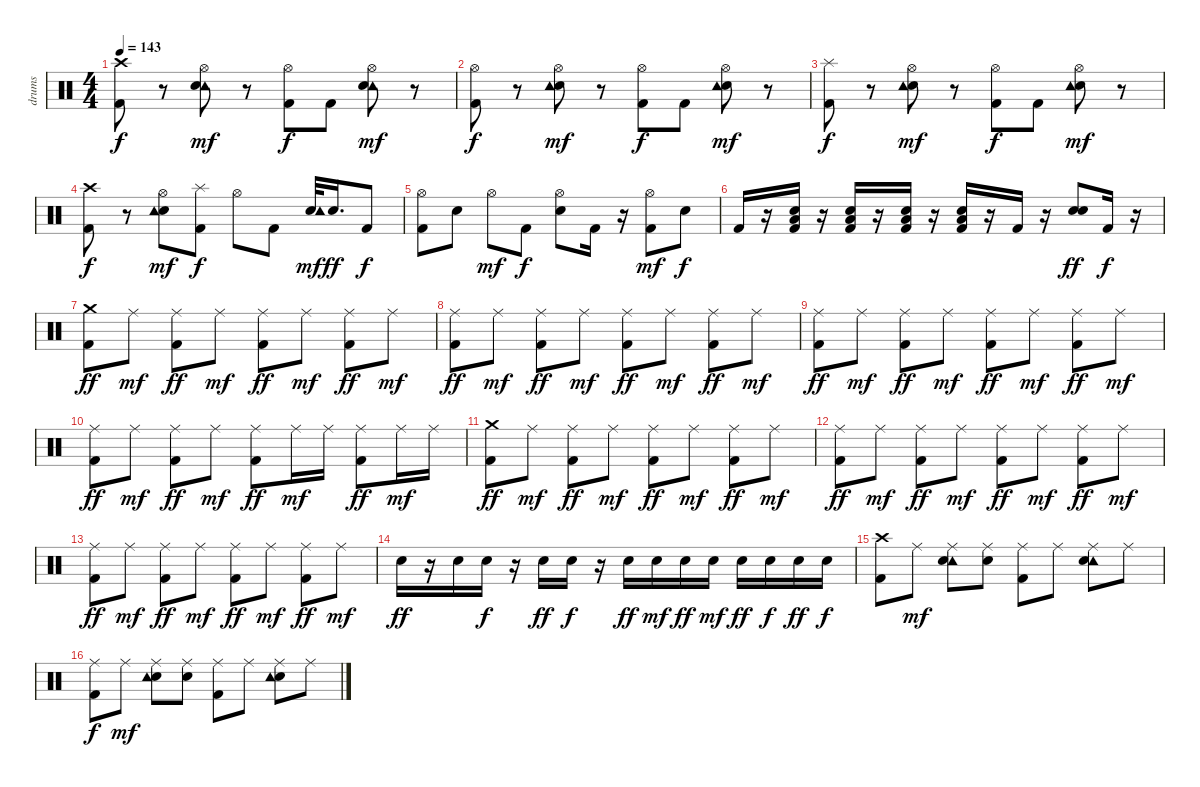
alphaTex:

\track ("drums" "drums") {instrument percussion}
\staff {score}
\articulation defaults
\ts (4 4)
\tempo 143
\clef neutral
\ks c
("Crash high (hit)" "Kick (hit) 2").8{dy f} r.8 ("Tambourine (hit)" "Snare (hit) 2" "Hi-Hat (open)").8{dy mf} r.8 ("Kick (hit) 2" "Hi-Hat (open)").8{dy f} "Kick (hit) 2".8 ("Tambourine (hit)" "Snare (hit) 2" "Hi-Hat (open)").8{dy mf} r.8 |
("Kick (hit) 2" "Hi-Hat (open)").8{dy f} r.8 ("Snare (hit) 2" "Hi-Hat (open)" "Tambourine (hit)").8{dy mf} r.8 ("Kick (hit) 2" "Hi-Hat (open)").8{dy f} "Kick (hit) 2".8 ("Hi-Hat (open)" "Snare (hit) 2" "Tambourine (hit)").8{dy mf} r.8 |
("Splash (hit)" "Kick (hit) 2").8{dy f} r.8 ("Hi-Hat (open)" "Snare (hit) 2" "Tambourine (hit)").8{dy mf} r.8 ("Kick (hit) 2" "Hi-Hat (open)").8{dy f} "Kick (hit) 2".8 ("Snare (hit) 2" "Hi-Hat (open)" "Tambourine (hit)").8{dy mf} r.8 |
("Crash high (hit)" "Kick (hit) 2").8{dy f} r.8 ("Snare (hit) 2" "Hi-Hat (open)" "Tambourine (hit)").8{dy mf} ("Splash (hit)" "Kick (hit) 2").8{dy f} "Hi-Hat (open)".8 "Kick (hit) 2".8 ("Snare (hit) 2" "Tambourine (hit)").32{dy mf} "Snare (hit) 2".16{d dy ff} "Kick (hit) 2".8{dy f} |
("Kick (hit) 2" "Hi-Hat (open)").8 "Snare (hit) 2".8 "Hi-Hat (open)".8{dy mf} "Kick (hit) 2".8{dy f} ("Snare (hit) 2" "Hi-Hat (open)").8 "Kick (hit) 2".16 r.16 ("Kick (hit) 2" "Hi-Hat (open)").8{dy mf} "Snare (hit) 2".8{dy f} |
"Kick (hit) 2".16 r.16 ("Low Floor Tom (hit)" "Kick (hit) 2" "Snare (hit) 2").16 r.16 ("Low Floor Tom (hit)" "Kick (hit) 2" "Snare (hit) 2").16 r.16 ("Low Floor Tom (hit)" "Kick (hit) 2" "Snare (hit) 2").16 r.16 ("Kick (hit) 2" "Snare (hit) 2" "Low Floor Tom (hit)").16 r.16 "Kick (hit) 2".16 r.16 ("Snare (hit) 2" "Snare (hit) 2").8{dy ff} "Kick (hit) 2".16{dy f} r.16 |
("Crash medium (hit)" "Kick (hit) 2").8{dy ff} "Ride (middle)".8{dy mf} ("Ride (middle)" "Kick (hit) 2").8{dy ff} "Ride (middle)".8{dy mf} ("Kick (hit) 2" "Ride (middle)").8{dy ff} "Ride (middle)".8{dy mf} ("Kick (hit) 2" "Ride (middle)").8{dy ff} "Ride (middle)".8{dy mf} |
("Kick (hit) 2" "Ride (middle)").8{dy ff} "Ride (middle)".8{dy mf} ("Kick (hit) 2" "Ride (middle)").8{dy ff} "Ride (middle)".8{dy mf} ("Kick (hit) 2" "Ride (middle)").8{dy ff} "Ride (middle)".8{dy mf} ("Kick (hit) 2" "Ride (middle)").8{dy ff} "Ride (middle)".8{dy mf} |
("Ride (middle)" "Kick (hit) 2").8{dy ff} "Ride (middle)".8{dy mf} ("Ride (middle)" "Kick (hit) 2").8{dy ff} "Ride (middle)".8{dy mf} ("Ride (middle)" "Kick (hit) 2").8{dy ff} "Ride (middle)".8{dy mf} ("Ride (middle)" "Kick (hit) 2").8{dy ff} "Ride (middle)".8{dy mf} |
("Ride (middle)" "Kick (hit) 2").8{dy ff} "Ride (middle)".8{dy mf} ("Ride (middle)" "Kick (hit) 2").8{dy ff} "Ride (middle)".8{dy mf} ("Ride (middle)" "Kick (hit) 2").8{dy ff} "Ride (middle)".16{dy mf} "Ride (middle)".16 ("Ride (middle)" "Kick (hit) 2").8{dy ff} "Ride (middle)".16{dy mf} "Ride (middle)".16 |
("Crash medium (hit)" "Kick (hit) 2").8{dy ff} "Ride (middle)".8{dy mf} ("Ride (middle)" "Kick (hit) 2").8{dy ff} "Ride (middle)".8{dy mf} ("Kick (hit) 2" "Ride (middle)").8{dy ff} "Ride (middle)".8{dy mf} ("Kick (hit) 2" "Ride (middle)").8{dy ff} "Ride (middle)".8{dy mf} |
("Kick (hit) 2" "Ride (middle)").8{dy ff} "Ride (middle)".8{dy mf} ("Kick (hit) 2" "Ride (middle)").8{dy ff} "Ride (middle)".8{dy mf} ("Kick (hit) 2" "Ride (middle)").8{dy ff} "Ride (middle)".8{dy mf} ("Kick (hit) 2" "Ride (middle)").8{dy ff} "Ride (middle)".8{dy mf} |
("Ride (middle)" "Kick (hit) 2").8{dy ff} "Ride (middle)".8{dy mf} ("Ride (middle)" "Kick (hit) 2").8{dy ff} "Ride (middle)".8{dy mf} ("Ride (middle)" "Kick (hit) 2").8{dy ff} "Ride (middle)".8{dy mf} ("Ride (middle)" "Kick (hit) 2").8{dy ff} "Ride (middle)".8{dy mf} |
"Snare (hit) 2".16{dy ff} r.16 "Snare (hit) 2".16 "Snare (hit) 2".16{dy f} r.16 "Snare (hit) 2".16{dy ff} "Snare (hit) 2".16{dy f} r.16 "Snare (hit) 2".16{dy ff} "Snare (hit) 2".16{dy mf} "Snare (hit) 2".16{dy ff} "Snare (hit) 2".16{dy mf} "Snare (hit) 2".16{dy ff} "Snare (hit) 2".16{dy f} "Snare (hit) 2".16{dy ff} "Snare (hit) 2".16{dy f} |
("Kick (hit) 2" "Crash high (hit)").8 "Ride (middle)".8{dy mf} ("Tambourine (hit)" "Ride (middle)" "Snare (hit) 2").8 ("Ride (middle)" "Snare (hit) 2").8 ("Kick (hit) 2" "Ride (middle)").8 "Ride (middle)".8 ("Tambourine (hit)" "Snare (hit) 2" "Ride (middle)").8 "Ride (middle)".8 |
("Ride (middle)" "Kick (hit) 2").8{dy f} "Ride (middle)".8{dy mf} ("Ride (middle)" "Snare (hit) 2" "Tambourine (hit)").8 ("Snare (hit) 2" "Ride (middle)").8 ("Kick (hit) 2" "Ride (middle)").8 "Ride (middle)".8 ("Snare (hit) 2" "Ride (middle)" "Tambourine (hit)").8 "Ride (middle)".8
